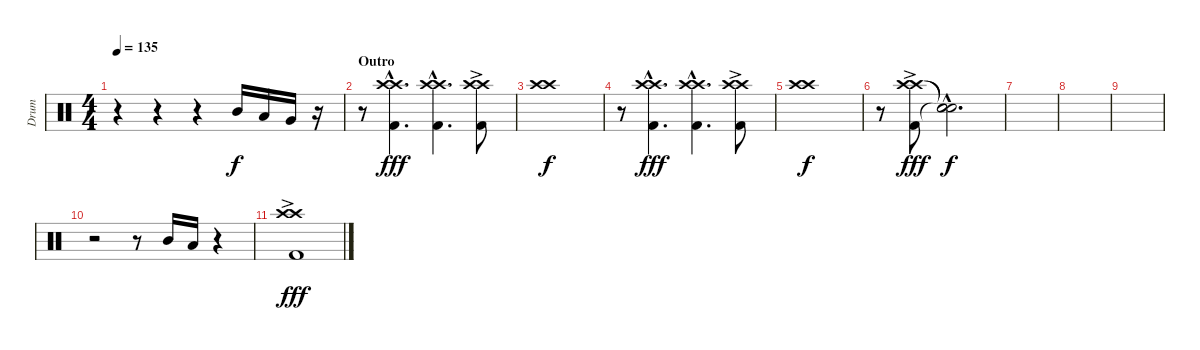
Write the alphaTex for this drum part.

\track ("Drum" "Drum") {instrument percussion}
\staff {score}
\articulation defaults
\ts (4 4)
\tempo 135
\clef neutral
\ks c
r.4{dy fff} r.4 r.4 "Mid Tom (hit)".16{dy f} "Low Tom (hit)".16 "Very Low Tom (hit)".16 r.16 |
\section ("" "Outro")
r.8 ("Crash high (hit)"{hac} "Crash high (hit)"{hac} "Kick (hit) 2"{hac}).4{d dy fff} ("Crash high (hit)"{hac} "Crash high (hit)"{hac} "Kick (hit) 2"{hac}).4{d} ("Crash high (hit)"{ac} "Crash high (hit)"{ac} "Kick (hit) 2"{ac}).8 |
("Crash high (hit)"{tr (49 64)} "Crash high (hit)"{tr (49 64)}).1{dy f} |
r.8 ("Crash high (hit)"{hac} "Crash high (hit)"{hac} "Kick (hit) 2"{hac}).4{d dy fff} ("Crash high (hit)"{hac} "Crash high (hit)"{hac} "Kick (hit) 2"{hac}).4{d} ("Crash high (hit)"{ac} "Crash high (hit)"{ac} "Kick (hit) 2"{ac}).8 |
("Crash high (hit)"{tr (49 64)} "Crash high (hit)"{tr (49 64)}).1{dy f} |
r.8 ("Crash high (hit)"{ac} "Crash high (hit)"{ac} "Kick (hit) 2").8{dy fff} ("Snare (hit)"{hac t} "Snare (hit)"{hac t} "Snare (hit)"{hac t}).2{d dy f} |
|
|
|
r.2 r.8 "Mid Tom (hit)".16 "Low Tom (hit)".16 r.4 |
("Crash high (hit)"{ac} "Crash high (hit)"{ac} "Kick (hit) 2"{ac}).1{dy fff}
